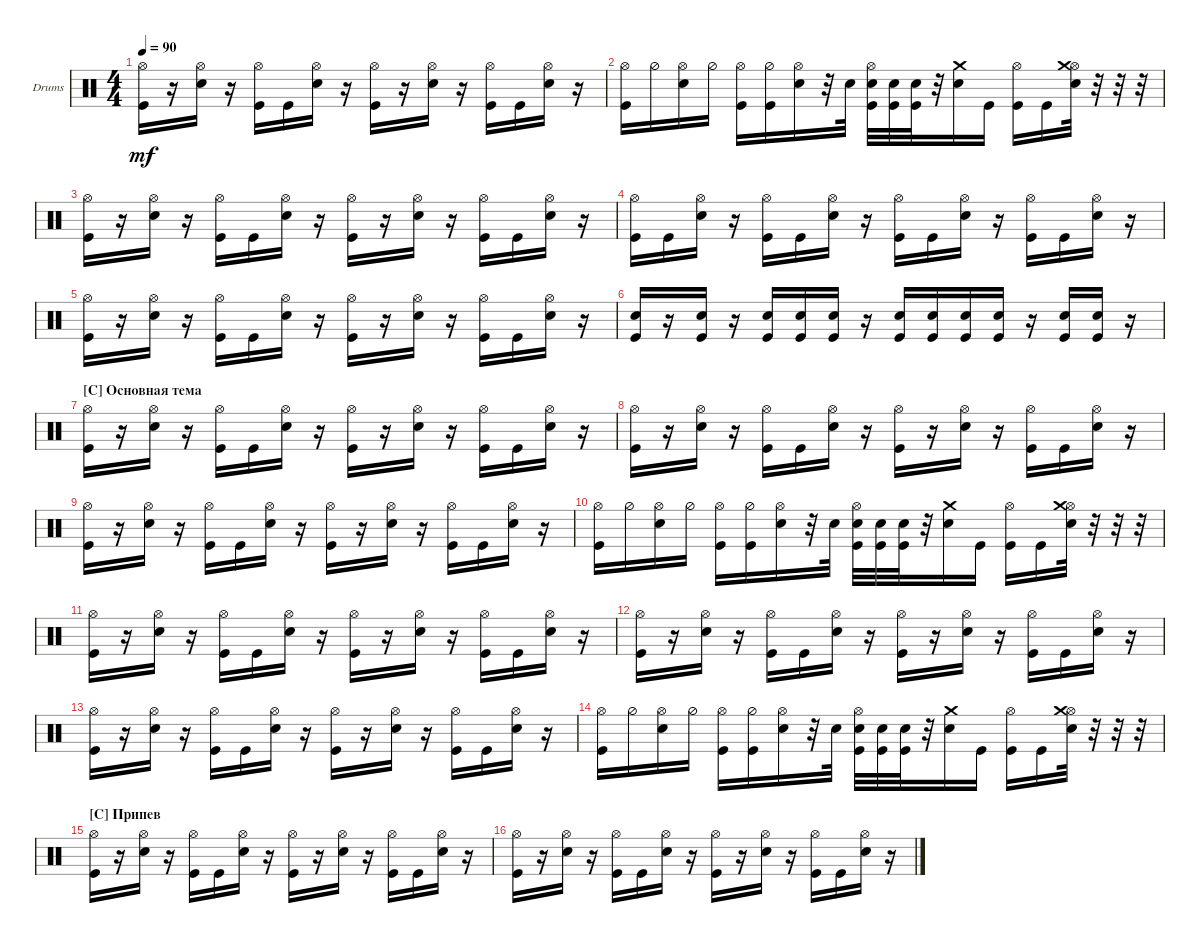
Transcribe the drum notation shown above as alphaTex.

\bracketExtendMode groupsimilarinstruments
\firstSystemTrackNameOrientation horizontal
\otherSystemsTrackNameOrientation horizontal
\track ("Drumkit" "Drums") {instrument percussion}
\staff {score}
\articulation defaults
\ts (4 4)
\tempo 90
\clef neutral
\ks c
("Hi-Hat (open)" "Kick (hit)").16{dy mf} r.16 ("Hi-Hat (open)" "Snare (hit) 2").16 r.16 ("Hi-Hat (open)" "Kick (hit)").16 "Kick (hit)".16 ("Hi-Hat (open)" "Snare (hit) 2").16 r.16 ("Hi-Hat (open)" "Kick (hit)").16 r.16 ("Hi-Hat (open)" "Snare (hit) 2").16 r.16 ("Hi-Hat (open)" "Kick (hit)").16 "Kick (hit)".16 ("Hi-Hat (open)" "Snare (hit) 2").16 r.16 |
("Hi-Hat (open)" "Kick (hit)").16 "Hi-Hat (half)".16 ("Hi-Hat (open)" "Snare (hit) 2").16 "Hi-Hat (half)".16 ("Hi-Hat (open)" "Kick (hit)").16 ("Kick (hit)" "Hi-Hat (half)").16 ("Hi-Hat (open)" "Snare (hit) 2").16 r.32 "Snare (hit) 2".32 ("Hi-Hat (open)" "Snare (hit) 2" "Kick (hit)").32 ("Kick (hit)" "Snare (hit) 2").32 ("Kick (hit)" "Snare (hit) 2").32 r.32 ("Crash medium (hit)" "Snare (hit) 2").16 "Kick (hit)".16 ("Hi-Hat (open)" "Kick (hit)").16 "Kick (hit)".16 ("Hi-Hat (open)" "Crash medium (hit)" "Snare (hit) 2").32 r.32 r.32 r.32 |
("Hi-Hat (open)" "Kick (hit)").16 r.16 ("Hi-Hat (open)" "Snare (hit) 2").16 r.16 ("Hi-Hat (open)" "Kick (hit)").16 "Kick (hit)".16 ("Hi-Hat (open)" "Snare (hit) 2").16 r.16 ("Hi-Hat (open)" "Kick (hit)").16 r.16 ("Hi-Hat (open)" "Snare (hit) 2").16 r.16 ("Hi-Hat (open)" "Kick (hit)").16 "Kick (hit)".16 ("Hi-Hat (open)" "Snare (hit) 2").16 r.16 |
("Hi-Hat (open)" "Kick (hit)").16 "Kick (hit)".16 ("Hi-Hat (open)" "Snare (hit) 2").16 r.16 ("Hi-Hat (open)" "Kick (hit)").16 "Kick (hit)".16 ("Hi-Hat (open)" "Snare (hit) 2").16 r.16 ("Hi-Hat (open)" "Kick (hit)").16 "Kick (hit)".16 ("Hi-Hat (open)" "Snare (hit) 2").16 r.16 ("Hi-Hat (open)" "Kick (hit)").16 "Kick (hit)".16 ("Hi-Hat (open)" "Snare (hit) 2").16 r.16 |
("Hi-Hat (open)" "Kick (hit)").16 r.16 ("Hi-Hat (open)" "Snare (hit) 2").16 r.16 ("Hi-Hat (open)" "Kick (hit)").16 "Kick (hit)".16 ("Hi-Hat (open)" "Snare (hit) 2").16 r.16 ("Hi-Hat (open)" "Kick (hit)").16 r.16 ("Hi-Hat (open)" "Snare (hit) 2").16 r.16 ("Hi-Hat (open)" "Kick (hit)").16 "Kick (hit)".16 ("Hi-Hat (open)" "Snare (hit) 2").16 r.16 |
("Kick (hit)" "Snare (hit) 2").16 r.16 ("Kick (hit)" "Snare (hit) 2").16 r.16 ("Kick (hit)" "Snare (hit) 2").16 ("Kick (hit)" "Snare (hit) 2").16 ("Kick (hit)" "Snare (hit) 2").16 r.16 ("Kick (hit)" "Snare (hit) 2").16 ("Kick (hit)" "Snare (hit) 2").16 ("Kick (hit)" "Snare (hit) 2").16 ("Kick (hit)" "Snare (hit) 2").16 r.16 ("Kick (hit)" "Snare (hit) 2").16 ("Kick (hit)" "Snare (hit) 2").16 r.16 |
\section ("C" "Основная тема")
("Hi-Hat (open)" "Kick (hit)").16 r.16 ("Hi-Hat (open)" "Snare (hit) 2").16 r.16 ("Hi-Hat (open)" "Kick (hit)").16 "Kick (hit)".16 ("Hi-Hat (open)" "Snare (hit) 2").16 r.16 ("Hi-Hat (open)" "Kick (hit)").16 r.16 ("Hi-Hat (open)" "Snare (hit) 2").16 r.16 ("Hi-Hat (open)" "Kick (hit)").16 "Kick (hit)".16 ("Hi-Hat (open)" "Snare (hit) 2").16 r.16 |
("Hi-Hat (open)" "Kick (hit)").16 r.16 ("Hi-Hat (open)" "Snare (hit) 2").16 r.16 ("Hi-Hat (open)" "Kick (hit)").16 "Kick (hit)".16 ("Hi-Hat (open)" "Snare (hit) 2").16 r.16 ("Hi-Hat (open)" "Kick (hit)").16 r.16 ("Hi-Hat (open)" "Snare (hit) 2").16 r.16 ("Hi-Hat (open)" "Kick (hit)").16 "Kick (hit)".16 ("Hi-Hat (open)" "Snare (hit) 2").16 r.16 |
("Hi-Hat (open)" "Kick (hit)").16 r.16 ("Hi-Hat (open)" "Snare (hit) 2").16 r.16 ("Hi-Hat (open)" "Kick (hit)").16 "Kick (hit)".16 ("Hi-Hat (open)" "Snare (hit) 2").16 r.16 ("Hi-Hat (open)" "Kick (hit)").16 r.16 ("Hi-Hat (open)" "Snare (hit) 2").16 r.16 ("Hi-Hat (open)" "Kick (hit)").16 "Kick (hit)".16 ("Hi-Hat (open)" "Snare (hit) 2").16 r.16 |
("Hi-Hat (open)" "Kick (hit)").16 "Hi-Hat (half)".16 ("Hi-Hat (open)" "Snare (hit) 2").16 "Hi-Hat (half)".16 ("Hi-Hat (open)" "Kick (hit)").16 ("Kick (hit)" "Hi-Hat (half)").16 ("Hi-Hat (open)" "Snare (hit) 2").16 r.32 "Snare (hit) 2".32 ("Hi-Hat (open)" "Snare (hit) 2" "Kick (hit)").32 ("Kick (hit)" "Snare (hit) 2").32 ("Kick (hit)" "Snare (hit) 2").32 r.32 ("Crash medium (hit)" "Snare (hit) 2").16 "Kick (hit)".16 ("Hi-Hat (open)" "Kick (hit)").16 "Kick (hit)".16 ("Hi-Hat (open)" "Crash medium (hit)" "Snare (hit) 2").32 r.32 r.32 r.32 |
("Hi-Hat (open)" "Kick (hit)").16 r.16 ("Hi-Hat (open)" "Snare (hit) 2").16 r.16 ("Hi-Hat (open)" "Kick (hit)").16 "Kick (hit)".16 ("Hi-Hat (open)" "Snare (hit) 2").16 r.16 ("Hi-Hat (open)" "Kick (hit)").16 r.16 ("Hi-Hat (open)" "Snare (hit) 2").16 r.16 ("Hi-Hat (open)" "Kick (hit)").16 "Kick (hit)".16 ("Hi-Hat (open)" "Snare (hit) 2").16 r.16 |
("Hi-Hat (open)" "Kick (hit)").16 r.16 ("Hi-Hat (open)" "Snare (hit) 2").16 r.16 ("Hi-Hat (open)" "Kick (hit)").16 "Kick (hit)".16 ("Hi-Hat (open)" "Snare (hit) 2").16 r.16 ("Hi-Hat (open)" "Kick (hit)").16 r.16 ("Hi-Hat (open)" "Snare (hit) 2").16 r.16 ("Hi-Hat (open)" "Kick (hit)").16 "Kick (hit)".16 ("Hi-Hat (open)" "Snare (hit) 2").16 r.16 |
("Hi-Hat (open)" "Kick (hit)").16 r.16 ("Hi-Hat (open)" "Snare (hit) 2").16 r.16 ("Hi-Hat (open)" "Kick (hit)").16 "Kick (hit)".16 ("Hi-Hat (open)" "Snare (hit) 2").16 r.16 ("Hi-Hat (open)" "Kick (hit)").16 r.16 ("Hi-Hat (open)" "Snare (hit) 2").16 r.16 ("Hi-Hat (open)" "Kick (hit)").16 "Kick (hit)".16 ("Hi-Hat (open)" "Snare (hit) 2").16 r.16 |
("Hi-Hat (open)" "Kick (hit)").16 "Hi-Hat (half)".16 ("Hi-Hat (open)" "Snare (hit) 2").16 "Hi-Hat (half)".16 ("Hi-Hat (open)" "Kick (hit)").16 ("Kick (hit)" "Hi-Hat (half)").16 ("Hi-Hat (open)" "Snare (hit) 2").16 r.32 "Snare (hit) 2".32 ("Hi-Hat (open)" "Snare (hit) 2" "Kick (hit)").32 ("Kick (hit)" "Snare (hit) 2").32 ("Kick (hit)" "Snare (hit) 2").32 r.32 ("Crash medium (hit)" "Snare (hit) 2").16 "Kick (hit)".16 ("Hi-Hat (open)" "Kick (hit)").16 "Kick (hit)".16 ("Hi-Hat (open)" "Crash medium (hit)" "Snare (hit) 2").32 r.32 r.32 r.32 |
\section ("C" "Припев")
("Hi-Hat (open)" "Kick (hit)").16 r.16 ("Hi-Hat (open)" "Snare (hit) 2").16 r.16 ("Hi-Hat (open)" "Kick (hit)").16 "Kick (hit)".16 ("Hi-Hat (open)" "Snare (hit) 2").16 r.16 ("Hi-Hat (open)" "Kick (hit)").16 r.16 ("Hi-Hat (open)" "Snare (hit) 2").16 r.16 ("Hi-Hat (open)" "Kick (hit)").16 "Kick (hit)".16 ("Hi-Hat (open)" "Snare (hit) 2").16 r.16 |
("Hi-Hat (open)" "Kick (hit)").16 r.16 ("Hi-Hat (open)" "Snare (hit) 2").16 r.16 ("Hi-Hat (open)" "Kick (hit)").16 "Kick (hit)".16 ("Hi-Hat (open)" "Snare (hit) 2").16 r.16 ("Hi-Hat (open)" "Kick (hit)").16 r.16 ("Hi-Hat (open)" "Snare (hit) 2").16 r.16 ("Hi-Hat (open)" "Kick (hit)").16 "Kick (hit)".16 ("Hi-Hat (open)" "Snare (hit) 2").16 r.16
